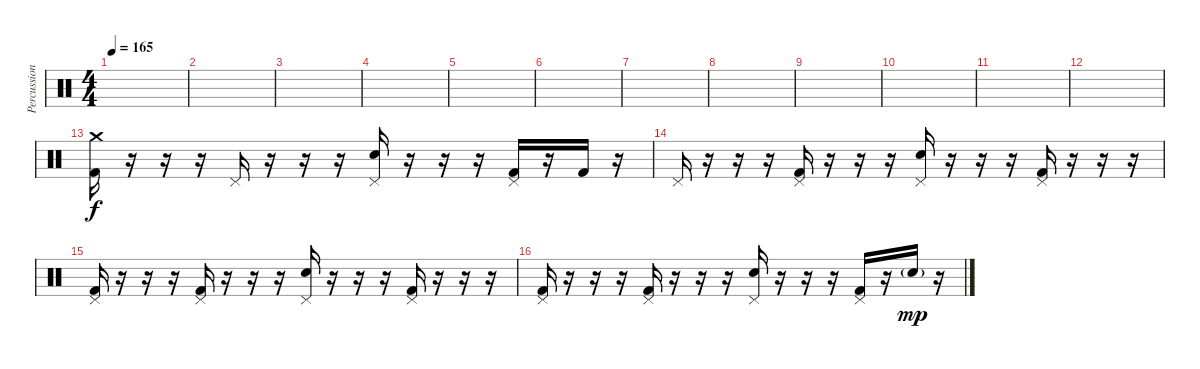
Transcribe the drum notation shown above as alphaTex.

\track ("Percussion" "Percussion") {instrument percussion}
\staff {score}
\articulation defaults
\ts (4 4)
\tempo 165
\clef neutral
\ks c
|
|
|
|
|
|
|
|
|
|
|
|
("Crash medium (hit)" "Kick (hit) 2").16 r.16 r.16 r.16 "Pedal Hi-Hat (hit)".16 r.16 r.16 r.16 ("Pedal Hi-Hat (hit)" "Snare (hit) 2").16 r.16 r.16 r.16 ("Pedal Hi-Hat (hit)" "Kick (hit) 2").16 r.16 "Kick (hit) 2".16 r.16 |
"Pedal Hi-Hat (hit)".16 r.16 r.16 r.16 ("Pedal Hi-Hat (hit)" "Kick (hit) 2").16 r.16 r.16 r.16 ("Pedal Hi-Hat (hit)" "Snare (hit) 2").16 r.16 r.16 r.16 ("Pedal Hi-Hat (hit)" "Kick (hit) 2").16 r.16 r.16 r.16 |
("Pedal Hi-Hat (hit)" "Kick (hit) 2").16 r.16 r.16 r.16 ("Pedal Hi-Hat (hit)" "Kick (hit) 2").16 r.16 r.16 r.16 ("Pedal Hi-Hat (hit)" "Snare (hit) 2").16 r.16 r.16 r.16 ("Pedal Hi-Hat (hit)" "Kick (hit) 2").16 r.16 r.16 r.16 |
("Pedal Hi-Hat (hit)" "Kick (hit) 2").16 r.16 r.16 r.16 ("Pedal Hi-Hat (hit)" "Kick (hit) 2").16 r.16 r.16 r.16 ("Pedal Hi-Hat (hit)" "Snare (hit) 2").16 r.16 r.16 r.16 ("Pedal Hi-Hat (hit)" "Kick (hit) 2").16 r.16 "Snare (hit) 2"{g}.16{dy mp} r.16
